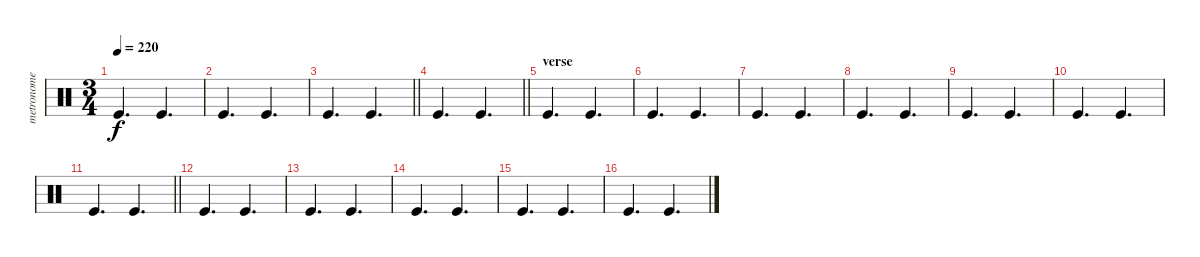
\track ("metronome" "metronome") {instrument percussion}
\staff {score}
\articulation defaults
\ts (3 4)
\tempo 220
\clef neutral
\ks c "Kick (hit)".4{d dy f} "Kick (hit)".4{d}
|
"Kick (hit)".4{d} "Kick (hit)".4{d} |
\barLineRight lightlight "Kick (hit)".4{d} "Kick (hit)".4{d}
|
\barLineRight lightlight "Kick (hit)".4{d} "Kick (hit)".4{d}
|
\section ("" "verse")
"Kick (hit)".4{d} "Kick (hit)".4{d} |
"Kick (hit)".4{d} "Kick (hit)".4{d} |
"Kick (hit)".4{d} "Kick (hit)".4{d} |
"Kick (hit)".4{d} "Kick (hit)".4{d} |
"Kick (hit)".4{d} "Kick (hit)".4{d} |
"Kick (hit)".4{d} "Kick (hit)".4{d} |
\barLineRight lightlight "Kick (hit)".4{d} "Kick (hit)".4{d}
|
"Kick (hit)".4{d} "Kick (hit)".4{d} |
"Kick (hit)".4{d} "Kick (hit)".4{d} |
"Kick (hit)".4{d} "Kick (hit)".4{d} |
"Kick (hit)".4{d} "Kick (hit)".4{d} |
"Kick (hit)".4{d} "Kick (hit)".4{d}
